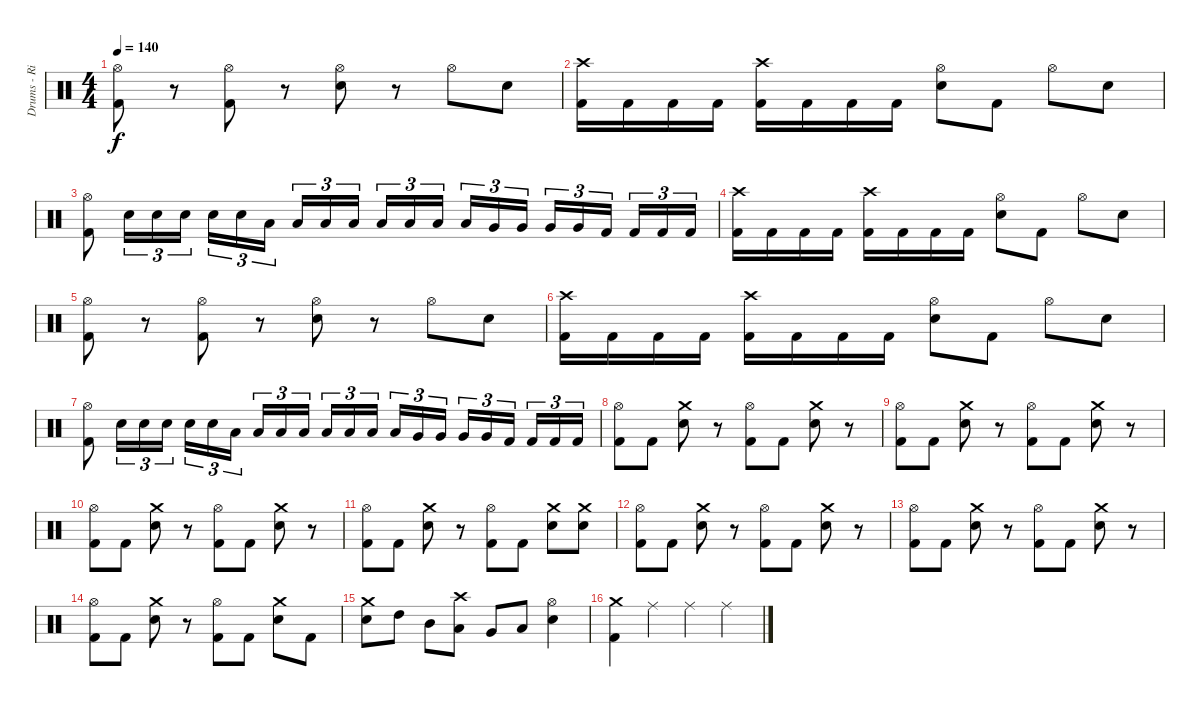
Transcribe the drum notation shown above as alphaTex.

\track ("Drums - Riley" "Drums - Ri") {instrument percussion}
\staff {score}
\articulation defaults
\ts (4 4)
\tempo 140
\clef neutral
\ks c
("Kick (hit) 2" "Hi-Hat (open)").8{dy f} r.8 ("Kick (hit) 2" "Hi-Hat (open)").8 r.8 ("Electric Snare (hit)" "Hi-Hat (open)").8 r.8 "Hi-Hat (open)".8 "Electric Snare (hit)".8 |
("Kick (hit) 2" "Crash high (hit)").16 "Kick (hit) 2".16 "Kick (hit) 2".16 "Kick (hit) 2".16 ("Kick (hit) 2" "Crash high (hit)").16 "Kick (hit) 2".16 "Kick (hit) 2".16 "Kick (hit) 2".16 ("Electric Snare (hit)" "Hi-Hat (open)").8 "Kick (hit) 2".8 "Hi-Hat (open)".8 "Electric Snare (hit)".8 |
("Kick (hit) 2" "Hi-Hat (open)").8 "Electric Snare (hit)".16{tu (3 2)} "Electric Snare (hit)".16{tu (3 2)} "Electric Snare (hit)".16{tu (3 2)} "Electric Snare (hit)".16{tu (3 2)} "Electric Snare (hit)".16{tu (3 2)} "Low Tom (hit)".16{tu (3 2)} "Low Tom (hit)".16{tu (3 2)} "Low Tom (hit)".16{tu (3 2)} "Low Tom (hit)".16{tu (3 2)} "Low Floor Tom (hit)".16{tu (3 2)} "Low Floor Tom (hit)".16{tu (3 2)} "Low Floor Tom (hit)".16{tu (3 2)} "Low Floor Tom (hit)".16{tu (3 2)} "Very Low Tom (hit)".16{tu (3 2)} "Very Low Tom (hit)".16{tu (3 2)} "Very Low Tom (hit)".16{tu (3 2)} "Very Low Tom (hit)".16{tu (3 2)} "Kick (hit) 2".16{tu (3 2)} "Kick (hit) 2".16{tu (3 2)} "Kick (hit) 2".16{tu (3 2)} "Kick (hit) 2".16{tu (3 2)} |
("Kick (hit) 2" "Crash high (hit)").16 "Kick (hit) 2".16 "Kick (hit) 2".16 "Kick (hit) 2".16 ("Kick (hit) 2" "Crash high (hit)").16 "Kick (hit) 2".16 "Kick (hit) 2".16 "Kick (hit) 2".16 ("Electric Snare (hit)" "Hi-Hat (open)").8 "Kick (hit) 2".8 "Hi-Hat (open)".8 "Electric Snare (hit)".8 |
("Kick (hit) 2" "Hi-Hat (open)").8 r.8 ("Kick (hit) 2" "Hi-Hat (open)").8 r.8 ("Electric Snare (hit)" "Hi-Hat (open)").8 r.8 "Hi-Hat (open)".8 "Electric Snare (hit)".8 |
("Kick (hit) 2" "Crash high (hit)").16 "Kick (hit) 2".16 "Kick (hit) 2".16 "Kick (hit) 2".16 ("Kick (hit) 2" "Crash high (hit)").16 "Kick (hit) 2".16 "Kick (hit) 2".16 "Kick (hit) 2".16 ("Electric Snare (hit)" "Hi-Hat (open)").8 "Kick (hit) 2".8 "Hi-Hat (open)".8 "Electric Snare (hit)".8 |
("Kick (hit) 2" "Hi-Hat (open)").8 "Electric Snare (hit)".16{tu (3 2)} "Electric Snare (hit)".16{tu (3 2)} "Electric Snare (hit)".16{tu (3 2)} "Electric Snare (hit)".16{tu (3 2)} "Electric Snare (hit)".16{tu (3 2)} "Low Tom (hit)".16{tu (3 2)} "Low Tom (hit)".16{tu (3 2)} "Low Tom (hit)".16{tu (3 2)} "Low Tom (hit)".16{tu (3 2)} "Low Floor Tom (hit)".16{tu (3 2)} "Low Floor Tom (hit)".16{tu (3 2)} "Low Floor Tom (hit)".16{tu (3 2)} "Low Floor Tom (hit)".16{tu (3 2)} "Very Low Tom (hit)".16{tu (3 2)} "Very Low Tom (hit)".16{tu (3 2)} "Very Low Tom (hit)".16{tu (3 2)} "Very Low Tom (hit)".16{tu (3 2)} "Kick (hit) 2".16{tu (3 2)} "Kick (hit) 2".16{tu (3 2)} "Kick (hit) 2".16{tu (3 2)} "Kick (hit) 2".16{tu (3 2)} |
("Kick (hit) 2" "Hi-Hat (open)").8 "Kick (hit) 2".8 ("Electric Snare (hit)" "Crash medium (hit)").8 r.8 ("Kick (hit) 2" "Hi-Hat (open)").8 "Kick (hit) 2".8 ("Electric Snare (hit)" "Crash medium (hit)").8 r.8 |
("Kick (hit) 2" "Hi-Hat (open)").8 "Kick (hit) 2".8 ("Electric Snare (hit)" "Crash medium (hit)").8 r.8 ("Kick (hit) 2" "Hi-Hat (open)").8 "Kick (hit) 2".8 ("Electric Snare (hit)" "Crash medium (hit)").8 r.8 |
("Kick (hit) 2" "Hi-Hat (open)").8 "Kick (hit) 2".8 ("Electric Snare (hit)" "Crash medium (hit)").8 r.8 ("Kick (hit) 2" "Hi-Hat (open)").8 "Kick (hit) 2".8 ("Electric Snare (hit)" "Crash medium (hit)").8 r.8 |
("Kick (hit) 2" "Hi-Hat (open)").8 "Kick (hit) 2".8 ("Electric Snare (hit)" "Crash medium (hit)").8 r.8 ("Kick (hit) 2" "Hi-Hat (open)").8 "Kick (hit) 2".8 ("Electric Snare (hit)" "Crash medium (hit)").8 ("Electric Snare (hit)" "Crash medium (hit)").8 |
("Kick (hit) 2" "Hi-Hat (open)").8 "Kick (hit) 2".8 ("Electric Snare (hit)" "Crash medium (hit)").8 r.8 ("Kick (hit) 2" "Hi-Hat (open)").8 "Kick (hit) 2".8 ("Electric Snare (hit)" "Crash medium (hit)").8 r.8 |
("Kick (hit) 2" "Hi-Hat (open)").8 "Kick (hit) 2".8 ("Electric Snare (hit)" "Crash medium (hit)").8 r.8 ("Kick (hit) 2" "Hi-Hat (open)").8 "Kick (hit) 2".8 ("Electric Snare (hit)" "Crash medium (hit)").8 r.8 |
("Kick (hit) 2" "Hi-Hat (open)").8 "Kick (hit) 2".8 ("Electric Snare (hit)" "Crash medium (hit)").8 r.8 ("Kick (hit) 2" "Hi-Hat (open)").8 "Kick (hit) 2".8 ("Electric Snare (hit)" "Crash medium (hit)").8 "Kick (hit) 2".8 |
("Electric Snare (hit)" "Crash medium (hit)").8 "High Tom (hit)".8 "Mid Tom (hit)".8 ("Low Tom (hit)" "Crash high (hit)").8 "Very Low Tom (hit)".8 "Low Floor Tom (hit)".8 ("Electric Snare (hit)" "Hi-Hat (open)").4 |
("Kick (hit) 2" "Crash medium (hit)").4 "Ride (middle)".4 "Ride (middle)".4 "Ride (middle)".4
